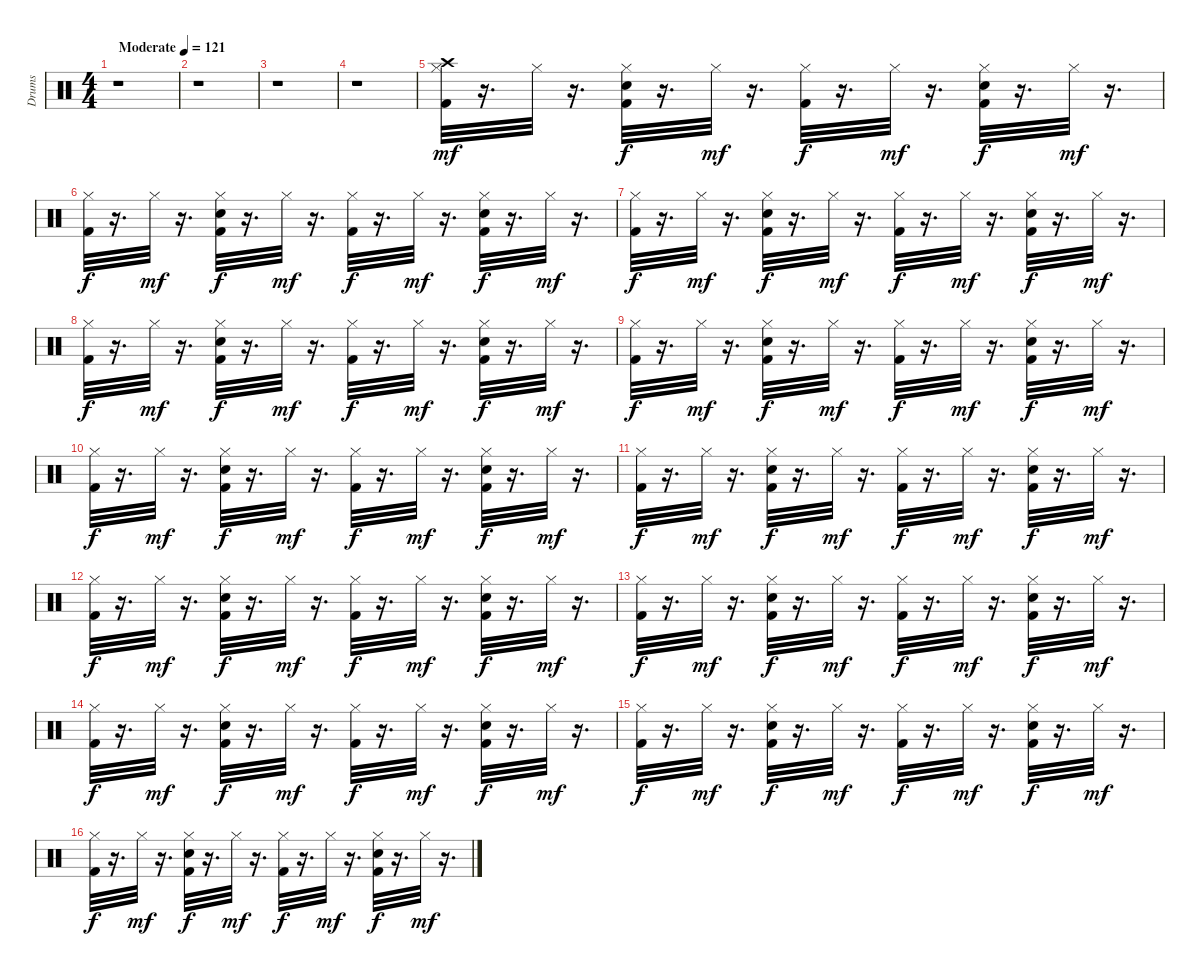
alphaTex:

\track ("Drums" "Drums") {instrument percussion}
\staff {score}
\articulation defaults
\ts (4 4)
\tempo (121 "Moderate")
\clef neutral
\ks c
r.1{dy mf} |
r.1 |
r.1 |
r.1 |
("Crash high (hit)" "Hi-Hat (closed)" "Kick (hit) 2").32 r.16{d} "Hi-Hat (closed)".32 r.16{d} ("Kick (hit) 2" "Hi-Hat (closed)" "Snare (hit) 2").32{dy f} r.16{d} "Hi-Hat (closed)".32{dy mf} r.16{d} ("Hi-Hat (closed)" "Kick (hit) 2").32{dy f} r.16{d} "Hi-Hat (closed)".32{dy mf} r.16{d} ("Kick (hit) 2" "Hi-Hat (closed)" "Snare (hit) 2").32{dy f} r.16{d} "Hi-Hat (closed)".32{dy mf} r.16{d} |
("Hi-Hat (closed)" "Kick (hit) 2").32{dy f} r.16{d} "Hi-Hat (closed)".32{dy mf} r.16{d} ("Kick (hit) 2" "Hi-Hat (closed)" "Snare (hit) 2").32{dy f} r.16{d} "Hi-Hat (closed)".32{dy mf} r.16{d} ("Hi-Hat (closed)" "Kick (hit) 2").32{dy f} r.16{d} "Hi-Hat (closed)".32{dy mf} r.16{d} ("Kick (hit) 2" "Hi-Hat (closed)" "Snare (hit) 2").32{dy f} r.16{d} "Hi-Hat (closed)".32{dy mf} r.16{d} |
("Kick (hit) 2" "Hi-Hat (closed)").32{dy f} r.16{d} "Hi-Hat (closed)".32{dy mf} r.16{d} ("Kick (hit) 2" "Hi-Hat (closed)" "Snare (hit) 2").32{dy f} r.16{d} "Hi-Hat (closed)".32{dy mf} r.16{d} ("Hi-Hat (closed)" "Kick (hit) 2").32{dy f} r.16{d} "Hi-Hat (closed)".32{dy mf} r.16{d} ("Kick (hit) 2" "Hi-Hat (closed)" "Snare (hit) 2").32{dy f} r.16{d} "Hi-Hat (closed)".32{dy mf} r.16{d} |
("Hi-Hat (closed)" "Kick (hit) 2").32{dy f} r.16{d} "Hi-Hat (closed)".32{dy mf} r.16{d} ("Kick (hit) 2" "Hi-Hat (closed)" "Snare (hit) 2").32{dy f} r.16{d} "Hi-Hat (closed)".32{dy mf} r.16{d} ("Hi-Hat (closed)" "Kick (hit) 2").32{dy f} r.16{d} "Hi-Hat (closed)".32{dy mf} r.16{d} ("Kick (hit) 2" "Hi-Hat (closed)" "Snare (hit) 2").32{dy f} r.16{d} "Hi-Hat (closed)".32{dy mf} r.16{d} |
("Kick (hit) 2" "Hi-Hat (closed)").32{dy f} r.16{d} "Hi-Hat (closed)".32{dy mf} r.16{d} ("Kick (hit) 2" "Hi-Hat (closed)" "Snare (hit) 2").32{dy f} r.16{d} "Hi-Hat (closed)".32{dy mf} r.16{d} ("Hi-Hat (closed)" "Kick (hit) 2").32{dy f} r.16{d} "Hi-Hat (closed)".32{dy mf} r.16{d} ("Kick (hit) 2" "Hi-Hat (closed)" "Snare (hit) 2").32{dy f} r.16{d} "Hi-Hat (closed)".32{dy mf} r.16{d} |
("Hi-Hat (closed)" "Kick (hit) 2").32{dy f} r.16{d} "Hi-Hat (closed)".32{dy mf} r.16{d} ("Kick (hit) 2" "Hi-Hat (closed)" "Snare (hit) 2").32{dy f} r.16{d} "Hi-Hat (closed)".32{dy mf} r.16{d} ("Hi-Hat (closed)" "Kick (hit) 2").32{dy f} r.16{d} "Hi-Hat (closed)".32{dy mf} r.16{d} ("Kick (hit) 2" "Hi-Hat (closed)" "Snare (hit) 2").32{dy f} r.16{d} "Hi-Hat (closed)".32{dy mf} r.16{d} |
("Kick (hit) 2" "Hi-Hat (closed)").32{dy f} r.16{d} "Hi-Hat (closed)".32{dy mf} r.16{d} ("Kick (hit) 2" "Hi-Hat (closed)" "Snare (hit) 2").32{dy f} r.16{d} "Hi-Hat (closed)".32{dy mf} r.16{d} ("Hi-Hat (closed)" "Kick (hit) 2").32{dy f} r.16{d} "Hi-Hat (closed)".32{dy mf} r.16{d} ("Kick (hit) 2" "Hi-Hat (closed)" "Snare (hit) 2").32{dy f} r.16{d} "Hi-Hat (closed)".32{dy mf} r.16{d} |
("Hi-Hat (closed)" "Kick (hit) 2").32{dy f} r.16{d} "Hi-Hat (closed)".32{dy mf} r.16{d} ("Kick (hit) 2" "Hi-Hat (closed)" "Snare (hit) 2").32{dy f} r.16{d} "Hi-Hat (closed)".32{dy mf} r.16{d} ("Hi-Hat (closed)" "Kick (hit) 2").32{dy f} r.16{d} "Hi-Hat (closed)".32{dy mf} r.16{d} ("Kick (hit) 2" "Hi-Hat (closed)" "Snare (hit) 2").32{dy f} r.16{d} "Hi-Hat (closed)".32{dy mf} r.16{d} |
("Kick (hit) 2" "Hi-Hat (closed)").32{dy f} r.16{d} "Hi-Hat (closed)".32{dy mf} r.16{d} ("Kick (hit) 2" "Hi-Hat (closed)" "Snare (hit) 2").32{dy f} r.16{d} "Hi-Hat (closed)".32{dy mf} r.16{d} ("Hi-Hat (closed)" "Kick (hit) 2").32{dy f} r.16{d} "Hi-Hat (closed)".32{dy mf} r.16{d} ("Kick (hit) 2" "Hi-Hat (closed)" "Snare (hit) 2").32{dy f} r.16{d} "Hi-Hat (closed)".32{dy mf} r.16{d} |
("Hi-Hat (closed)" "Kick (hit) 2").32{dy f} r.16{d} "Hi-Hat (closed)".32{dy mf} r.16{d} ("Kick (hit) 2" "Hi-Hat (closed)" "Snare (hit) 2").32{dy f} r.16{d} "Hi-Hat (closed)".32{dy mf} r.16{d} ("Hi-Hat (closed)" "Kick (hit) 2").32{dy f} r.16{d} "Hi-Hat (closed)".32{dy mf} r.16{d} ("Kick (hit) 2" "Hi-Hat (closed)" "Snare (hit) 2").32{dy f} r.16{d} "Hi-Hat (closed)".32{dy mf} r.16{d} |
("Kick (hit) 2" "Hi-Hat (closed)").32{dy f} r.16{d} "Hi-Hat (closed)".32{dy mf} r.16{d} ("Kick (hit) 2" "Hi-Hat (closed)" "Snare (hit) 2").32{dy f} r.16{d} "Hi-Hat (closed)".32{dy mf} r.16{d} ("Hi-Hat (closed)" "Kick (hit) 2").32{dy f} r.16{d} "Hi-Hat (closed)".32{dy mf} r.16{d} ("Kick (hit) 2" "Hi-Hat (closed)" "Snare (hit) 2").32{dy f} r.16{d} "Hi-Hat (closed)".32{dy mf} r.16{d} |
("Hi-Hat (closed)" "Kick (hit) 2").32{dy f} r.16{d} "Hi-Hat (closed)".32{dy mf} r.16{d} ("Kick (hit) 2" "Hi-Hat (closed)" "Snare (hit) 2").32{dy f} r.16{d} "Hi-Hat (closed)".32{dy mf} r.16{d} ("Hi-Hat (closed)" "Kick (hit) 2").32{dy f} r.16{d} "Hi-Hat (closed)".32{dy mf} r.16{d} ("Kick (hit) 2" "Hi-Hat (closed)" "Snare (hit) 2").32{dy f} r.16{d} "Hi-Hat (closed)".32{dy mf} r.16{d}
